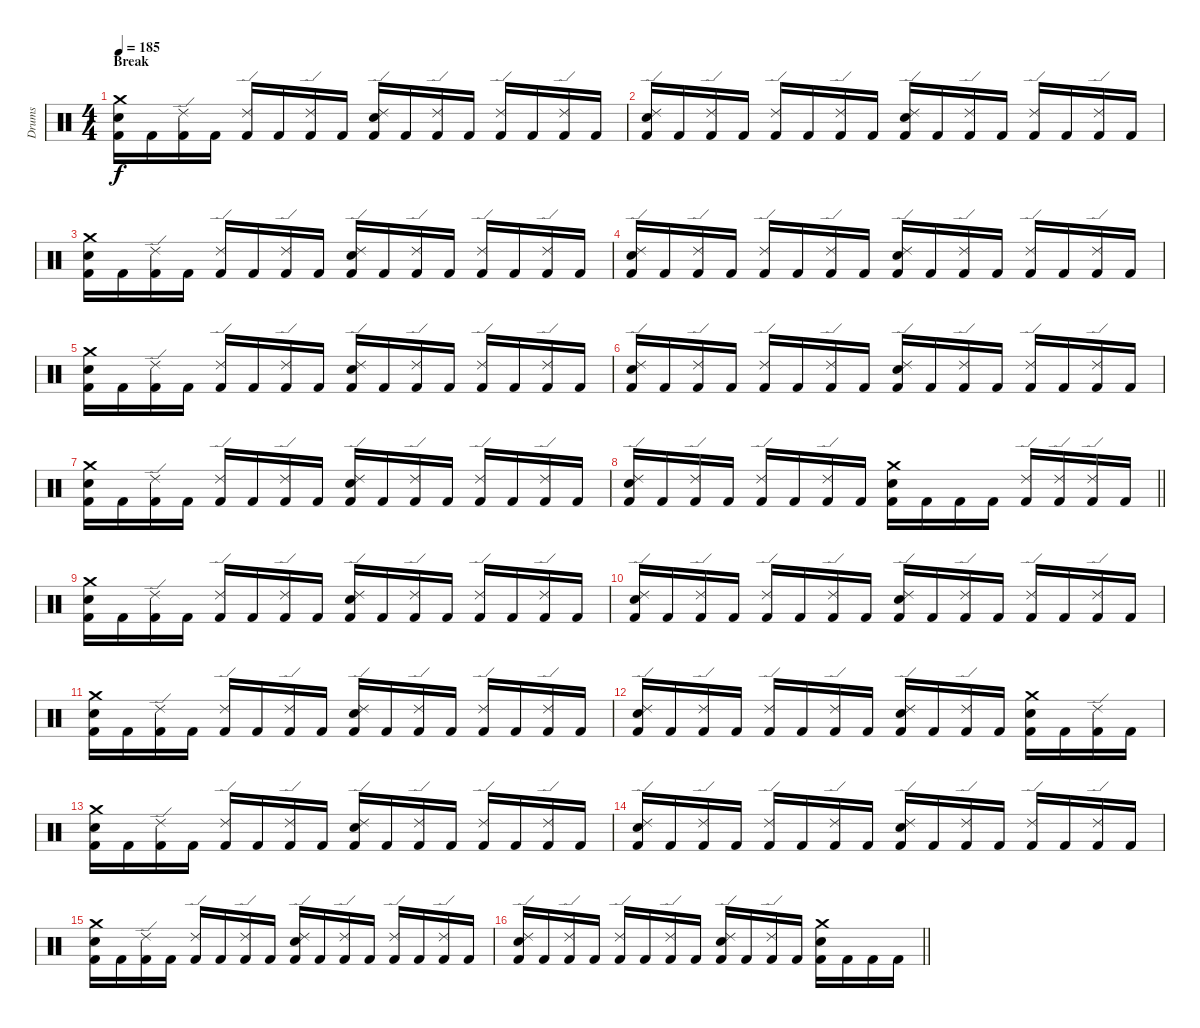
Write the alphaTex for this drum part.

\track ("Drums" "Drums") {instrument percussion}
\staff {score}
\articulation defaults
\ts (4 4)
\section ("" "Break")
\tempo 185
\clef neutral
\ks c
("Kick (hit) 2" "Snare (hit) 2" "Crash medium (hit)").16{dy f} "Kick (hit) 2".16 ("Kick (hit) 2" "Ride (edge) 2").16 "Kick (hit) 2".16 ("Kick (hit) 2" "Ride (edge) 2").16 "Kick (hit) 2".16 ("Kick (hit) 2" "Ride (edge) 2").16 "Kick (hit) 2".16 ("Kick (hit) 2" "Snare (hit) 2" "Ride (edge) 2").16 "Kick (hit) 2".16 ("Kick (hit) 2" "Ride (edge) 2").16 "Kick (hit) 2".16 ("Kick (hit) 2" "Ride (edge) 2").16 "Kick (hit) 2".16 ("Kick (hit) 2" "Ride (edge) 2").16 "Kick (hit) 2".16 |
("Kick (hit) 2" "Snare (hit) 2" "Ride (edge) 2").16 "Kick (hit) 2".16 ("Kick (hit) 2" "Ride (edge) 2").16 "Kick (hit) 2".16 ("Kick (hit) 2" "Ride (edge) 2").16 "Kick (hit) 2".16 ("Kick (hit) 2" "Ride (edge) 2").16 "Kick (hit) 2".16 ("Kick (hit) 2" "Snare (hit) 2" "Ride (edge) 2").16 "Kick (hit) 2".16 ("Kick (hit) 2" "Ride (edge) 2").16 "Kick (hit) 2".16 ("Kick (hit) 2" "Ride (edge) 2").16 "Kick (hit) 2".16 ("Kick (hit) 2" "Ride (edge) 2").16 "Kick (hit) 2".16 |
("Kick (hit) 2" "Snare (hit) 2" "Crash medium (hit)").16 "Kick (hit) 2".16 ("Kick (hit) 2" "Ride (edge) 2").16 "Kick (hit) 2".16 ("Kick (hit) 2" "Ride (edge) 2").16 "Kick (hit) 2".16 ("Kick (hit) 2" "Ride (edge) 2").16 "Kick (hit) 2".16 ("Kick (hit) 2" "Snare (hit) 2" "Ride (edge) 2").16 "Kick (hit) 2".16 ("Kick (hit) 2" "Ride (edge) 2").16 "Kick (hit) 2".16 ("Kick (hit) 2" "Ride (edge) 2").16 "Kick (hit) 2".16 ("Kick (hit) 2" "Ride (edge) 2").16 "Kick (hit) 2".16 |
("Kick (hit) 2" "Snare (hit) 2" "Ride (edge) 2").16 "Kick (hit) 2".16 ("Kick (hit) 2" "Ride (edge) 2").16 "Kick (hit) 2".16 ("Kick (hit) 2" "Ride (edge) 2").16 "Kick (hit) 2".16 ("Kick (hit) 2" "Ride (edge) 2").16 "Kick (hit) 2".16 ("Kick (hit) 2" "Snare (hit) 2" "Ride (edge) 2").16 "Kick (hit) 2".16 ("Kick (hit) 2" "Ride (edge) 2").16 "Kick (hit) 2".16 ("Kick (hit) 2" "Ride (edge) 2").16 "Kick (hit) 2".16 ("Kick (hit) 2" "Ride (edge) 2").16 "Kick (hit) 2".16 |
("Kick (hit) 2" "Snare (hit) 2" "Crash medium (hit)").16 "Kick (hit) 2".16 ("Kick (hit) 2" "Ride (edge) 2").16 "Kick (hit) 2".16 ("Kick (hit) 2" "Ride (edge) 2").16 "Kick (hit) 2".16 ("Kick (hit) 2" "Ride (edge) 2").16 "Kick (hit) 2".16 ("Kick (hit) 2" "Snare (hit) 2" "Ride (edge) 2").16 "Kick (hit) 2".16 ("Kick (hit) 2" "Ride (edge) 2").16 "Kick (hit) 2".16 ("Kick (hit) 2" "Ride (edge) 2").16 "Kick (hit) 2".16 ("Kick (hit) 2" "Ride (edge) 2").16 "Kick (hit) 2".16 |
("Kick (hit) 2" "Snare (hit) 2" "Ride (edge) 2").16 "Kick (hit) 2".16 ("Kick (hit) 2" "Ride (edge) 2").16 "Kick (hit) 2".16 ("Kick (hit) 2" "Ride (edge) 2").16 "Kick (hit) 2".16 ("Kick (hit) 2" "Ride (edge) 2").16 "Kick (hit) 2".16 ("Kick (hit) 2" "Snare (hit) 2" "Ride (edge) 2").16 "Kick (hit) 2".16 ("Kick (hit) 2" "Ride (edge) 2").16 "Kick (hit) 2".16 ("Kick (hit) 2" "Ride (edge) 2").16 "Kick (hit) 2".16 ("Kick (hit) 2" "Ride (edge) 2").16 "Kick (hit) 2".16 |
("Kick (hit) 2" "Snare (hit) 2" "Crash medium (hit)").16 "Kick (hit) 2".16 ("Kick (hit) 2" "Ride (edge) 2").16 "Kick (hit) 2".16 ("Kick (hit) 2" "Ride (edge) 2").16 "Kick (hit) 2".16 ("Kick (hit) 2" "Ride (edge) 2").16 "Kick (hit) 2".16 ("Kick (hit) 2" "Snare (hit) 2" "Ride (edge) 2").16 "Kick (hit) 2".16 ("Kick (hit) 2" "Ride (edge) 2").16 "Kick (hit) 2".16 ("Kick (hit) 2" "Ride (edge) 2").16 "Kick (hit) 2".16 ("Kick (hit) 2" "Ride (edge) 2").16 "Kick (hit) 2".16 |
\barLineRight lightlight
("Kick (hit) 2" "Snare (hit) 2" "Ride (edge) 2").16 "Kick (hit) 2".16 ("Kick (hit) 2" "Ride (edge) 2").16 "Kick (hit) 2".16 ("Kick (hit) 2" "Ride (edge) 2").16 "Kick (hit) 2".16 ("Kick (hit) 2" "Ride (edge) 2").16 "Kick (hit) 2".16 ("Kick (hit) 2" "Snare (hit) 2" "Crash medium (hit)").16 "Kick (hit) 2".16 "Kick (hit) 2".16 "Kick (hit) 2".16 ("Kick (hit) 2" "Ride (edge) 2").16 ("Kick (hit) 2" "Ride (edge) 2").16 ("Kick (hit) 2" "Ride (edge) 2").16 "Kick (hit) 2".16 |
\section ("" "")
("Kick (hit) 2" "Snare (hit) 2" "Crash medium (hit)").16 "Kick (hit) 2".16 ("Kick (hit) 2" "Ride (edge) 2").16 "Kick (hit) 2".16 ("Kick (hit) 2" "Ride (edge) 2").16 "Kick (hit) 2".16 ("Kick (hit) 2" "Ride (edge) 2").16 "Kick (hit) 2".16 ("Kick (hit) 2" "Snare (hit) 2" "Ride (edge) 2").16 "Kick (hit) 2".16 ("Kick (hit) 2" "Ride (edge) 2").16 "Kick (hit) 2".16 ("Kick (hit) 2" "Ride (edge) 2").16 "Kick (hit) 2".16 ("Kick (hit) 2" "Ride (edge) 2").16 "Kick (hit) 2".16 |
("Kick (hit) 2" "Snare (hit) 2" "Ride (edge) 2").16 "Kick (hit) 2".16 ("Kick (hit) 2" "Ride (edge) 2").16 "Kick (hit) 2".16 ("Kick (hit) 2" "Ride (edge) 2").16 "Kick (hit) 2".16 ("Kick (hit) 2" "Ride (edge) 2").16 "Kick (hit) 2".16 ("Kick (hit) 2" "Snare (hit) 2" "Ride (edge) 2").16 "Kick (hit) 2".16 ("Kick (hit) 2" "Ride (edge) 2").16 "Kick (hit) 2".16 ("Kick (hit) 2" "Ride (edge) 2").16 "Kick (hit) 2".16 ("Kick (hit) 2" "Ride (edge) 2").16 "Kick (hit) 2".16 |
("Kick (hit) 2" "Snare (hit) 2" "Crash medium (hit)").16 "Kick (hit) 2".16 ("Kick (hit) 2" "Ride (edge) 2").16 "Kick (hit) 2".16 ("Kick (hit) 2" "Ride (edge) 2").16 "Kick (hit) 2".16 ("Kick (hit) 2" "Ride (edge) 2").16 "Kick (hit) 2".16 ("Kick (hit) 2" "Snare (hit) 2" "Ride (edge) 2").16 "Kick (hit) 2".16 ("Kick (hit) 2" "Ride (edge) 2").16 "Kick (hit) 2".16 ("Kick (hit) 2" "Ride (edge) 2").16 "Kick (hit) 2".16 ("Kick (hit) 2" "Ride (edge) 2").16 "Kick (hit) 2".16 |
("Kick (hit) 2" "Snare (hit) 2" "Ride (edge) 2").16 "Kick (hit) 2".16 ("Kick (hit) 2" "Ride (edge) 2").16 "Kick (hit) 2".16 ("Kick (hit) 2" "Ride (edge) 2").16 "Kick (hit) 2".16 ("Kick (hit) 2" "Ride (edge) 2").16 "Kick (hit) 2".16 ("Kick (hit) 2" "Snare (hit) 2" "Ride (edge) 2").16 "Kick (hit) 2".16 ("Kick (hit) 2" "Ride (edge) 2").16 "Kick (hit) 2".16 ("Kick (hit) 2" "Snare (hit) 2" "Crash medium (hit)").16 "Kick (hit) 2".16 ("Kick (hit) 2" "Ride (edge) 2").16 "Kick (hit) 2".16 |
("Kick (hit) 2" "Snare (hit) 2" "Crash medium (hit)").16 "Kick (hit) 2".16 ("Kick (hit) 2" "Ride (edge) 2").16 "Kick (hit) 2".16 ("Kick (hit) 2" "Ride (edge) 2").16 "Kick (hit) 2".16 ("Kick (hit) 2" "Ride (edge) 2").16 "Kick (hit) 2".16 ("Kick (hit) 2" "Snare (hit) 2" "Ride (edge) 2").16 "Kick (hit) 2".16 ("Kick (hit) 2" "Ride (edge) 2").16 "Kick (hit) 2".16 ("Kick (hit) 2" "Ride (edge) 2").16 "Kick (hit) 2".16 ("Kick (hit) 2" "Ride (edge) 2").16 "Kick (hit) 2".16 |
("Kick (hit) 2" "Snare (hit) 2" "Ride (edge) 2").16 "Kick (hit) 2".16 ("Kick (hit) 2" "Ride (edge) 2").16 "Kick (hit) 2".16 ("Kick (hit) 2" "Ride (edge) 2").16 "Kick (hit) 2".16 ("Kick (hit) 2" "Ride (edge) 2").16 "Kick (hit) 2".16 ("Kick (hit) 2" "Snare (hit) 2" "Ride (edge) 2").16 "Kick (hit) 2".16 ("Kick (hit) 2" "Ride (edge) 2").16 "Kick (hit) 2".16 ("Kick (hit) 2" "Ride (edge) 2").16 "Kick (hit) 2".16 ("Kick (hit) 2" "Ride (edge) 2").16 "Kick (hit) 2".16 |
("Kick (hit) 2" "Snare (hit) 2" "Crash medium (hit)").16 "Kick (hit) 2".16 ("Kick (hit) 2" "Ride (edge) 2").16 "Kick (hit) 2".16 ("Kick (hit) 2" "Ride (edge) 2").16 "Kick (hit) 2".16 ("Kick (hit) 2" "Ride (edge) 2").16 "Kick (hit) 2".16 ("Kick (hit) 2" "Snare (hit) 2" "Ride (edge) 2").16 "Kick (hit) 2".16 ("Kick (hit) 2" "Ride (edge) 2").16 "Kick (hit) 2".16 ("Kick (hit) 2" "Ride (edge) 2").16 "Kick (hit) 2".16 ("Kick (hit) 2" "Ride (edge) 2").16 "Kick (hit) 2".16 |
\barLineRight lightlight
("Kick (hit) 2" "Snare (hit) 2" "Ride (edge) 2").16 "Kick (hit) 2".16 ("Kick (hit) 2" "Ride (edge) 2").16 "Kick (hit) 2".16 ("Kick (hit) 2" "Ride (edge) 2").16 "Kick (hit) 2".16 ("Kick (hit) 2" "Ride (edge) 2").16 "Kick (hit) 2".16 ("Kick (hit) 2" "Snare (hit) 2" "Ride (edge) 2").16 "Kick (hit) 2".16 ("Kick (hit) 2" "Ride (edge) 2").16 "Kick (hit) 2".16 ("Kick (hit) 2" "Snare (hit) 2" "Crash medium (hit)").16 "Kick (hit) 2".16 "Kick (hit) 2".16 "Kick (hit) 2".16
